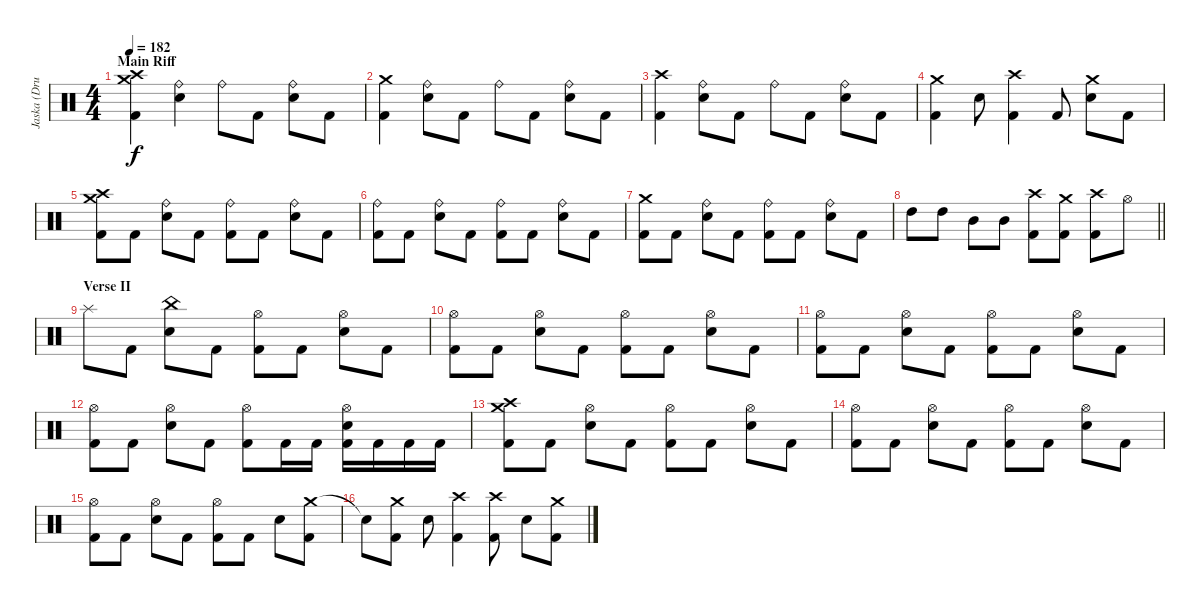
\track ("Jaska (Drums)" "Jaska (Dru") {instrument percussion}
\staff {score}
\articulation defaults
\ts (4 4)
\section ("" "Main Riff")
\tempo 182
\clef neutral
\ks c
("Crash medium (hit)" "Crash high (hit)" "Kick (hit) 2").4{dy f} ("Ride (bell)" "Electric Snare (hit)").4 "Ride (bell)".8 "Kick (hit) 2".8 ("Ride (bell)" "Electric Snare (hit)").8 "Kick (hit) 2".8 |
("Crash medium (hit)" "Kick (hit) 2").4 ("Ride (bell)" "Electric Snare (hit)").8 "Kick (hit) 2".8 "Ride (bell)".8 "Kick (hit) 2".8 ("Ride (bell)" "Electric Snare (hit)").8 "Kick (hit) 2".8 |
("Crash high (hit)" "Kick (hit) 2").4 ("Ride (bell)" "Electric Snare (hit)").8 "Kick (hit) 2".8 "Ride (bell)".8 "Kick (hit) 2".8 ("Ride (bell)" "Electric Snare (hit)").8 "Kick (hit) 2".8 |
("Crash medium (hit)" "Kick (hit) 2").4 "Electric Snare (hit)".8 ("Crash high (hit)" "Kick (hit) 2").4 "Kick (hit) 2".8 ("Crash medium (hit)" "Electric Snare (hit)").8 "Kick (hit) 2".8 |
("Crash medium (hit)" "Crash high (hit)" "Kick (hit) 2").8 "Kick (hit) 2".8 ("Ride (bell)" "Electric Snare (hit)").8 "Kick (hit) 2".8 ("Ride (bell)" "Kick (hit) 2").8 "Kick (hit) 2".8 ("Ride (bell)" "Electric Snare (hit)").8 "Kick (hit) 2".8 |
("Ride (bell)" "Kick (hit) 2").8 "Kick (hit) 2".8 ("Ride (bell)" "Electric Snare (hit)").8 "Kick (hit) 2".8 ("Ride (bell)" "Kick (hit) 2").8 "Kick (hit) 2".8 ("Ride (bell)" "Electric Snare (hit)").8 "Kick (hit) 2".8 |
("Crash medium (hit)" "Kick (hit) 2").8 "Kick (hit) 2".8 ("Ride (bell)" "Electric Snare (hit)").8 "Kick (hit) 2".8 ("Ride (bell)" "Kick (hit) 2").8 "Kick (hit) 2".8 ("Ride (bell)" "Electric Snare (hit)").8 "Kick (hit) 2".8 |
\barLineRight lightlight "High Tom (hit)".8 "High Tom (hit)".8 "Mid Tom (hit)".8 "Mid Tom (hit)".8
("Crash high (hit)" "Kick (hit) 2").8 ("Crash medium (hit)" "Kick (hit) 2").8 ("Crash high (hit)" "Kick (hit) 2").8 "Hi-Hat (open)".8 |
\section ("" "Verse II")
"Splash (hit)".8 "Kick (hit) 2".8 ("China (hit)" "Electric Snare (hit)").8 "Kick (hit) 2".8 ("Hi-Hat (open)" "Kick (hit) 2").8 "Kick (hit) 2".8 ("Hi-Hat (open)" "Electric Snare (hit)").8 "Kick (hit) 2".8 |
("Hi-Hat (open)" "Kick (hit) 2").8 "Kick (hit) 2".8 ("Hi-Hat (open)" "Electric Snare (hit)").8 "Kick (hit) 2".8 ("Hi-Hat (open)" "Kick (hit) 2").8 "Kick (hit) 2".8 ("Hi-Hat (open)" "Electric Snare (hit)").8 "Kick (hit) 2".8 |
("Hi-Hat (open)" "Kick (hit) 2").8 "Kick (hit) 2".8 ("Hi-Hat (open)" "Electric Snare (hit)").8 "Kick (hit) 2".8 ("Hi-Hat (open)" "Kick (hit) 2").8 "Kick (hit) 2".8 ("Hi-Hat (open)" "Electric Snare (hit)").8 "Kick (hit) 2".8 |
("Hi-Hat (open)" "Kick (hit) 2").8 "Kick (hit) 2".8 ("Hi-Hat (open)" "Electric Snare (hit)").8 "Kick (hit) 2".8 ("Hi-Hat (open)" "Kick (hit) 2").8 "Kick (hit) 2".16 "Kick (hit) 2".16 ("Hi-Hat (open)" "Electric Snare (hit)" "Kick (hit) 2").16 "Kick (hit) 2".16 "Kick (hit) 2".16 "Kick (hit) 2".16 |
("Crash medium (hit)" "Crash high (hit)" "Kick (hit) 2").8 "Kick (hit) 2".8 ("Hi-Hat (open)" "Electric Snare (hit)").8 "Kick (hit) 2".8 ("Hi-Hat (open)" "Kick (hit) 2").8 "Kick (hit) 2".8 ("Hi-Hat (open)" "Electric Snare (hit)").8 "Kick (hit) 2".8 |
("Hi-Hat (open)" "Kick (hit) 2").8 "Kick (hit) 2".8 ("Hi-Hat (open)" "Electric Snare (hit)").8 "Kick (hit) 2".8 ("Hi-Hat (open)" "Kick (hit) 2").8 "Kick (hit) 2".8 ("Hi-Hat (open)" "Electric Snare (hit)").8 "Kick (hit) 2".8 |
("Hi-Hat (open)" "Kick (hit) 2").8 "Kick (hit) 2".8 ("Hi-Hat (open)" "Electric Snare (hit)").8 "Kick (hit) 2".8 ("Hi-Hat (open)" "Kick (hit) 2").8 "Kick (hit) 2".8 "Electric Snare (hit)".8 ("Crash medium (hit)" "Kick (hit) 2").8 |
"Snare (hit)"{t}.8 ("Crash medium (hit)" "Kick (hit) 2").8 "Electric Snare (hit)".8 ("Crash high (hit)" "Kick (hit) 2").4 ("Crash high (hit)" "Kick (hit) 2").8 "Electric Snare (hit)".8 ("Crash medium (hit)" "Kick (hit) 2").8
